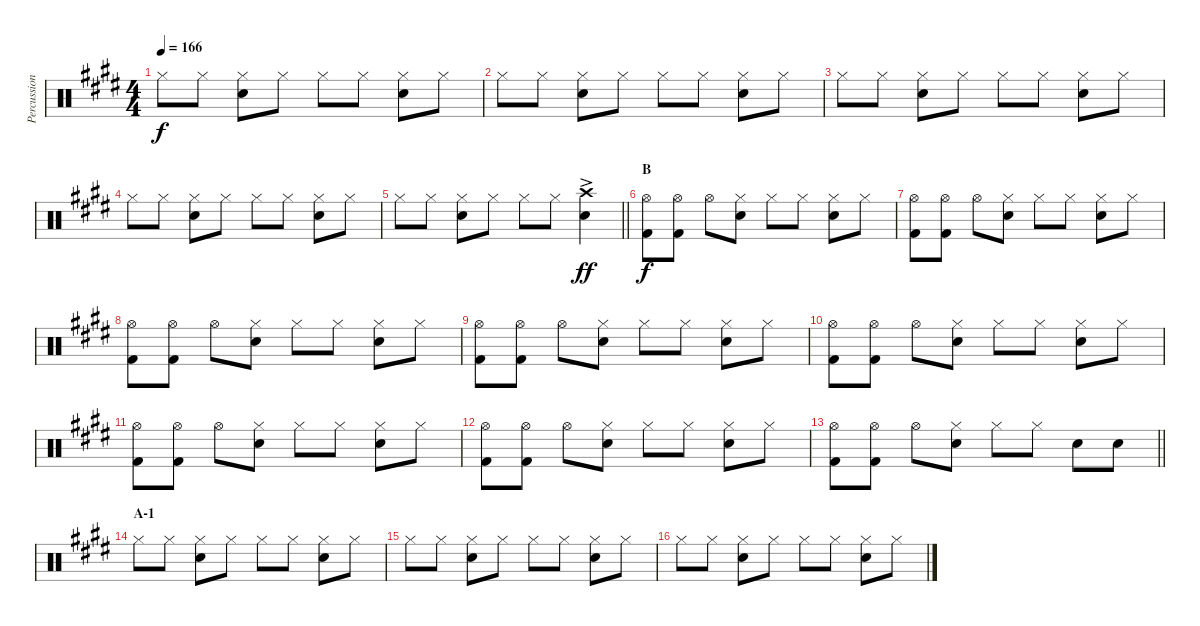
\track ("Percussion - Other" "Percussion") {instrument percussion}
\staff {score}
\articulation defaults
\ts (4 4)
\tempo 166
\clef neutral
\ks e "Hi-Hat (closed)".8{dy f} "Hi-Hat (closed)".8
("Hi-Hat (closed)" "Snare (hit) 2").8 "Hi-Hat (closed)".8 "Hi-Hat (closed)".8 "Hi-Hat (closed)".8 ("Hi-Hat (closed)" "Snare (hit) 2").8 "Hi-Hat (closed)".8 |
"Hi-Hat (closed)".8 "Hi-Hat (closed)".8 ("Hi-Hat (closed)" "Snare (hit) 2").8 "Hi-Hat (closed)".8 "Hi-Hat (closed)".8 "Hi-Hat (closed)".8 ("Hi-Hat (closed)" "Snare (hit) 2").8 "Hi-Hat (closed)".8 |
"Hi-Hat (closed)".8 "Hi-Hat (closed)".8 ("Hi-Hat (closed)" "Snare (hit) 2").8 "Hi-Hat (closed)".8 "Hi-Hat (closed)".8 "Hi-Hat (closed)".8 ("Hi-Hat (closed)" "Snare (hit) 2").8 "Hi-Hat (closed)".8 |
"Hi-Hat (closed)".8 "Hi-Hat (closed)".8 ("Hi-Hat (closed)" "Snare (hit) 2").8 "Hi-Hat (closed)".8 "Hi-Hat (closed)".8 "Hi-Hat (closed)".8 ("Hi-Hat (closed)" "Snare (hit) 2").8 "Hi-Hat (closed)".8 |
\barLineRight lightlight "Hi-Hat (closed)".8 "Hi-Hat (closed)".8
("Hi-Hat (closed)" "Snare (hit) 2").8 "Hi-Hat (closed)".8 "Hi-Hat (closed)".8 "Hi-Hat (closed)".8 ("Crash high (hit)"{ac} "Snare (hit) 2").4{dy ff} |
\section ("" "B")
("Hi-Hat (open)" "Kick (hit) 2").8{dy f} ("Hi-Hat (open)" "Kick (hit) 2").8 "Hi-Hat (open)".8 ("Hi-Hat (closed)" "Snare (hit) 2").8 "Hi-Hat (closed)".8 "Hi-Hat (closed)".8 ("Hi-Hat (closed)" "Snare (hit) 2").8 "Hi-Hat (closed)".8 |
("Hi-Hat (open)" "Kick (hit) 2").8 ("Hi-Hat (open)" "Kick (hit) 2").8 "Hi-Hat (open)".8 ("Hi-Hat (closed)" "Snare (hit) 2").8 "Hi-Hat (closed)".8 "Hi-Hat (closed)".8 ("Hi-Hat (closed)" "Snare (hit) 2").8 "Hi-Hat (closed)".8 |
("Hi-Hat (open)" "Kick (hit) 2").8 ("Hi-Hat (open)" "Kick (hit) 2").8 "Hi-Hat (open)".8 ("Hi-Hat (closed)" "Snare (hit) 2").8 "Hi-Hat (closed)".8 "Hi-Hat (closed)".8 ("Hi-Hat (closed)" "Snare (hit) 2").8 "Hi-Hat (closed)".8 |
("Hi-Hat (open)" "Kick (hit) 2").8 ("Hi-Hat (open)" "Kick (hit) 2").8 "Hi-Hat (open)".8 ("Hi-Hat (closed)" "Snare (hit) 2").8 "Hi-Hat (closed)".8 "Hi-Hat (closed)".8 ("Hi-Hat (closed)" "Snare (hit) 2").8 "Hi-Hat (closed)".8 |
("Hi-Hat (open)" "Kick (hit) 2").8 ("Hi-Hat (open)" "Kick (hit) 2").8 "Hi-Hat (open)".8 ("Hi-Hat (closed)" "Snare (hit) 2").8 "Hi-Hat (closed)".8 "Hi-Hat (closed)".8 ("Hi-Hat (closed)" "Snare (hit) 2").8 "Hi-Hat (closed)".8 |
("Hi-Hat (open)" "Kick (hit) 2").8 ("Hi-Hat (open)" "Kick (hit) 2").8 "Hi-Hat (open)".8 ("Hi-Hat (closed)" "Snare (hit) 2").8 "Hi-Hat (closed)".8 "Hi-Hat (closed)".8 ("Hi-Hat (closed)" "Snare (hit) 2").8 "Hi-Hat (closed)".8 |
("Hi-Hat (open)" "Kick (hit) 2").8 ("Hi-Hat (open)" "Kick (hit) 2").8 "Hi-Hat (open)".8 ("Hi-Hat (closed)" "Snare (hit) 2").8 "Hi-Hat (closed)".8 "Hi-Hat (closed)".8 ("Hi-Hat (closed)" "Snare (hit) 2").8 "Hi-Hat (closed)".8 |
\barLineRight lightlight
("Hi-Hat (open)" "Kick (hit) 2").8 ("Hi-Hat (open)" "Kick (hit) 2").8 "Hi-Hat (open)".8 ("Hi-Hat (closed)" "Snare (hit) 2").8 "Hi-Hat (closed)".8 "Hi-Hat (closed)".8 "Snare (hit) 2".8 "Snare (hit) 2".8 |
\section ("" "A-1")
"Hi-Hat (closed)".8 "Hi-Hat (closed)".8 ("Hi-Hat (closed)" "Snare (hit) 2").8 "Hi-Hat (closed)".8 "Hi-Hat (closed)".8 "Hi-Hat (closed)".8 ("Hi-Hat (closed)" "Snare (hit) 2").8 "Hi-Hat (closed)".8 |
"Hi-Hat (closed)".8 "Hi-Hat (closed)".8 ("Hi-Hat (closed)" "Snare (hit) 2").8 "Hi-Hat (closed)".8 "Hi-Hat (closed)".8 "Hi-Hat (closed)".8 ("Hi-Hat (closed)" "Snare (hit) 2").8 "Hi-Hat (closed)".8 |
"Hi-Hat (closed)".8 "Hi-Hat (closed)".8 ("Hi-Hat (closed)" "Snare (hit) 2").8 "Hi-Hat (closed)".8 "Hi-Hat (closed)".8 "Hi-Hat (closed)".8 ("Hi-Hat (closed)" "Snare (hit) 2").8 "Hi-Hat (closed)".8
